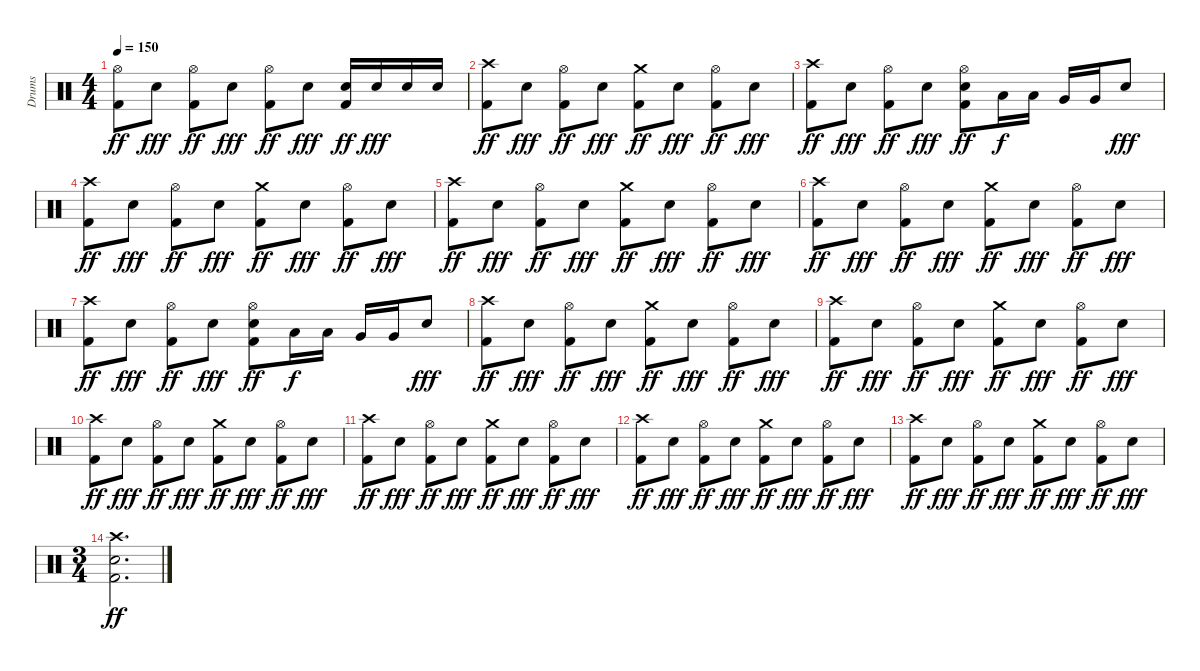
\track ("Drums" "Drums") {instrument percussion}
\staff {score}
\articulation defaults
\ts (4 4)
\tempo 150
\clef neutral
\ks c
("Hi-Hat (open)" "Kick (hit) 2").8{dy ff} "Snare (hit) 2".8{dy fff} ("Hi-Hat (open)" "Kick (hit) 2").8{dy ff} "Snare (hit) 2".8{dy fff} ("Hi-Hat (open)" "Kick (hit) 2").8{dy ff} "Snare (hit) 2".8{dy fff} ("Snare (hit) 2" "Kick (hit) 2").16{dy ff} "Snare (hit) 2".16{dy fff} "Snare (hit) 2".16 "Snare (hit) 2".16 |
("Crash high (hit)" "Kick (hit) 2").8{dy ff} "Snare (hit) 2".8{dy fff} ("Hi-Hat (open)" "Kick (hit) 2").8{dy ff} "Snare (hit) 2".8{dy fff} ("Crash medium (hit)" "Kick (hit) 2").8{dy ff} "Snare (hit) 2".8{dy fff} ("Hi-Hat (open)" "Kick (hit) 2").8{dy ff} "Snare (hit) 2".8{dy fff} |
("Crash high (hit)" "Kick (hit) 2").8{dy ff} "Snare (hit) 2".8{dy fff} ("Hi-Hat (open)" "Kick (hit) 2").8{dy ff} "Snare (hit) 2".8{dy fff} ("Hi-Hat (open)" "Snare (hit) 2" "Kick (hit) 2").8{dy ff} "Low Tom (hit)".16{dy f} "Low Tom (hit)".16 "Very Low Tom (hit)".16 "Very Low Tom (hit)".16 "Snare (hit) 2".8{dy fff} |
("Crash high (hit)" "Kick (hit) 2").8{dy ff} "Snare (hit) 2".8{dy fff} ("Hi-Hat (open)" "Kick (hit) 2").8{dy ff} "Snare (hit) 2".8{dy fff} ("Crash medium (hit)" "Kick (hit) 2").8{dy ff} "Snare (hit) 2".8{dy fff} ("Hi-Hat (open)" "Kick (hit) 2").8{dy ff} "Snare (hit) 2".8{dy fff} |
("Crash high (hit)" "Kick (hit) 2").8{dy ff} "Snare (hit) 2".8{dy fff} ("Hi-Hat (open)" "Kick (hit) 2").8{dy ff} "Snare (hit) 2".8{dy fff} ("Crash medium (hit)" "Kick (hit) 2").8{dy ff} "Snare (hit) 2".8{dy fff} ("Hi-Hat (open)" "Kick (hit) 2").8{dy ff} "Snare (hit) 2".8{dy fff} |
("Crash high (hit)" "Kick (hit) 2").8{dy ff} "Snare (hit) 2".8{dy fff} ("Hi-Hat (open)" "Kick (hit) 2").8{dy ff} "Snare (hit) 2".8{dy fff} ("Crash medium (hit)" "Kick (hit) 2").8{dy ff} "Snare (hit) 2".8{dy fff} ("Hi-Hat (open)" "Kick (hit) 2").8{dy ff} "Snare (hit) 2".8{dy fff} |
("Crash high (hit)" "Kick (hit) 2").8{dy ff} "Snare (hit) 2".8{dy fff} ("Hi-Hat (open)" "Kick (hit) 2").8{dy ff} "Snare (hit) 2".8{dy fff} ("Hi-Hat (open)" "Snare (hit) 2" "Kick (hit) 2").8{dy ff} "Low Tom (hit)".16{dy f} "Low Tom (hit)".16 "Very Low Tom (hit)".16 "Very Low Tom (hit)".16 "Snare (hit) 2".8{dy fff} |
("Crash high (hit)" "Kick (hit) 2").8{dy ff} "Snare (hit) 2".8{dy fff} ("Hi-Hat (open)" "Kick (hit) 2").8{dy ff} "Snare (hit) 2".8{dy fff} ("Crash medium (hit)" "Kick (hit) 2").8{dy ff} "Snare (hit) 2".8{dy fff} ("Hi-Hat (open)" "Kick (hit) 2").8{dy ff} "Snare (hit) 2".8{dy fff} |
("Crash high (hit)" "Kick (hit) 2").8{dy ff} "Snare (hit) 2".8{dy fff} ("Hi-Hat (open)" "Kick (hit) 2").8{dy ff} "Snare (hit) 2".8{dy fff} ("Crash medium (hit)" "Kick (hit) 2").8{dy ff} "Snare (hit) 2".8{dy fff} ("Hi-Hat (open)" "Kick (hit) 2").8{dy ff} "Snare (hit) 2".8{dy fff} |
("Crash high (hit)" "Kick (hit) 2").8{dy ff} "Snare (hit) 2".8{dy fff} ("Hi-Hat (open)" "Kick (hit) 2").8{dy ff} "Snare (hit) 2".8{dy fff} ("Crash medium (hit)" "Kick (hit) 2").8{dy ff} "Snare (hit) 2".8{dy fff} ("Hi-Hat (open)" "Kick (hit) 2").8{dy ff} "Snare (hit) 2".8{dy fff} |
("Crash high (hit)" "Kick (hit) 2").8{dy ff} "Snare (hit) 2".8{dy fff} ("Hi-Hat (open)" "Kick (hit) 2").8{dy ff} "Snare (hit) 2".8{dy fff} ("Crash medium (hit)" "Kick (hit) 2").8{dy ff} "Snare (hit) 2".8{dy fff} ("Hi-Hat (open)" "Kick (hit) 2").8{dy ff} "Snare (hit) 2".8{dy fff} |
("Crash high (hit)" "Kick (hit) 2").8{dy ff} "Snare (hit) 2".8{dy fff} ("Hi-Hat (open)" "Kick (hit) 2").8{dy ff} "Snare (hit) 2".8{dy fff} ("Crash medium (hit)" "Kick (hit) 2").8{dy ff} "Snare (hit) 2".8{dy fff} ("Hi-Hat (open)" "Kick (hit) 2").8{dy ff} "Snare (hit) 2".8{dy fff} |
("Crash high (hit)" "Kick (hit) 2").8{dy ff} "Snare (hit) 2".8{dy fff} ("Hi-Hat (open)" "Kick (hit) 2").8{dy ff} "Snare (hit) 2".8{dy fff} ("Crash medium (hit)" "Kick (hit) 2").8{dy ff} "Snare (hit) 2".8{dy fff} ("Hi-Hat (open)" "Kick (hit) 2").8{dy ff} "Snare (hit) 2".8{dy fff} |
\ts (3 4)
("Crash high (hit)" "Snare (hit) 2" "Kick (hit) 2").2{d dy ff}
